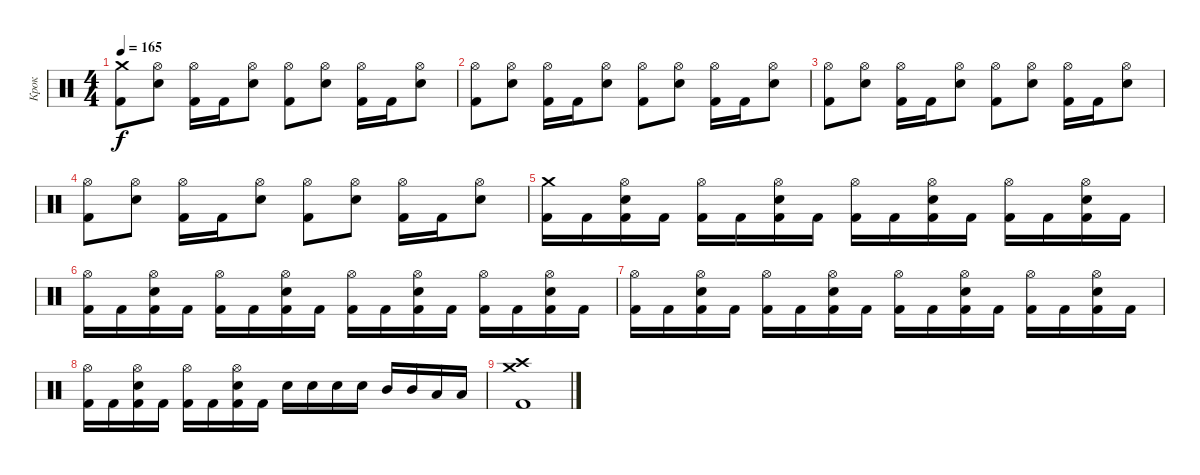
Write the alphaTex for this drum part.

\track ("Крок" "Крок") {instrument percussion}
\staff {score}
\articulation defaults
\ts (4 4)
\tempo 165
\clef neutral
\ks c
("Crash medium (hit)" "Kick (hit) 2").8{dy f} ("Hi-Hat (open)" "Electric Snare (hit)").8 ("Hi-Hat (open)" "Kick (hit) 2").16 "Kick (hit) 2".16 ("Hi-Hat (open)" "Electric Snare (hit)").8 ("Hi-Hat (open)" "Kick (hit) 2").8 ("Hi-Hat (open)" "Electric Snare (hit)").8 ("Hi-Hat (open)" "Kick (hit) 2").16 "Kick (hit) 2".16 ("Hi-Hat (open)" "Electric Snare (hit)").8 |
("Hi-Hat (open)" "Kick (hit) 2").8 ("Hi-Hat (open)" "Electric Snare (hit)").8 ("Hi-Hat (open)" "Kick (hit) 2").16 "Kick (hit) 2".16 ("Hi-Hat (open)" "Electric Snare (hit)").8 ("Hi-Hat (open)" "Kick (hit) 2").8 ("Hi-Hat (open)" "Electric Snare (hit)").8 ("Hi-Hat (open)" "Kick (hit) 2").16 "Kick (hit) 2".16 ("Hi-Hat (open)" "Electric Snare (hit)").8 |
("Hi-Hat (open)" "Kick (hit) 2").8 ("Hi-Hat (open)" "Electric Snare (hit)").8 ("Hi-Hat (open)" "Kick (hit) 2").16 "Kick (hit) 2".16 ("Hi-Hat (open)" "Electric Snare (hit)").8 ("Hi-Hat (open)" "Kick (hit) 2").8 ("Hi-Hat (open)" "Electric Snare (hit)").8 ("Hi-Hat (open)" "Kick (hit) 2").16 "Kick (hit) 2".16 ("Hi-Hat (open)" "Electric Snare (hit)").8 |
("Hi-Hat (open)" "Kick (hit) 2").8 ("Hi-Hat (open)" "Electric Snare (hit)").8 ("Hi-Hat (open)" "Kick (hit) 2").16 "Kick (hit) 2".16 ("Hi-Hat (open)" "Electric Snare (hit)").8 ("Hi-Hat (open)" "Kick (hit) 2").8 ("Hi-Hat (open)" "Electric Snare (hit)").8 ("Hi-Hat (open)" "Kick (hit) 2").16 "Kick (hit) 2".16 ("Hi-Hat (open)" "Electric Snare (hit)").8 |
("Kick (hit) 2" "Crash medium (hit)").16 "Kick (hit) 2".16 ("Kick (hit) 2" "Electric Snare (hit)" "Hi-Hat (open)").16 "Kick (hit) 2".16 ("Kick (hit) 2" "Hi-Hat (open)").16 "Kick (hit) 2".16 ("Kick (hit) 2" "Electric Snare (hit)" "Hi-Hat (open)").16 "Kick (hit) 2".16 ("Kick (hit) 2" "Hi-Hat (open)").16 "Kick (hit) 2".16 ("Kick (hit) 2" "Electric Snare (hit)" "Hi-Hat (open)").16 "Kick (hit) 2".16 ("Kick (hit) 2" "Hi-Hat (open)").16 "Kick (hit) 2".16 ("Kick (hit) 2" "Electric Snare (hit)" "Hi-Hat (open)").16 "Kick (hit) 2".16 |
("Kick (hit) 2" "Hi-Hat (open)").16 "Kick (hit) 2".16 ("Kick (hit) 2" "Electric Snare (hit)" "Hi-Hat (open)").16 "Kick (hit) 2".16 ("Kick (hit) 2" "Hi-Hat (open)").16 "Kick (hit) 2".16 ("Kick (hit) 2" "Electric Snare (hit)" "Hi-Hat (open)").16 "Kick (hit) 2".16 ("Kick (hit) 2" "Hi-Hat (open)").16 "Kick (hit) 2".16 ("Kick (hit) 2" "Electric Snare (hit)" "Hi-Hat (open)").16 "Kick (hit) 2".16 ("Kick (hit) 2" "Hi-Hat (open)").16 "Kick (hit) 2".16 ("Kick (hit) 2" "Electric Snare (hit)" "Hi-Hat (open)").16 "Kick (hit) 2".16 |
("Kick (hit) 2" "Hi-Hat (open)").16 "Kick (hit) 2".16 ("Kick (hit) 2" "Electric Snare (hit)" "Hi-Hat (open)").16 "Kick (hit) 2".16 ("Kick (hit) 2" "Hi-Hat (open)").16 "Kick (hit) 2".16 ("Kick (hit) 2" "Electric Snare (hit)" "Hi-Hat (open)").16 "Kick (hit) 2".16 ("Kick (hit) 2" "Hi-Hat (open)").16 "Kick (hit) 2".16 ("Kick (hit) 2" "Electric Snare (hit)" "Hi-Hat (open)").16 "Kick (hit) 2".16 ("Kick (hit) 2" "Hi-Hat (open)").16 "Kick (hit) 2".16 ("Kick (hit) 2" "Electric Snare (hit)" "Hi-Hat (open)").16 "Kick (hit) 2".16 |
("Kick (hit) 2" "Hi-Hat (open)").16 "Kick (hit) 2".16 ("Kick (hit) 2" "Electric Snare (hit)" "Hi-Hat (open)").16 "Kick (hit) 2".16 ("Kick (hit) 2" "Hi-Hat (open)").16 "Kick (hit) 2".16 ("Kick (hit) 2" "Electric Snare (hit)" "Hi-Hat (open)").16 "Kick (hit) 2".16 "Electric Snare (hit)".16 "Electric Snare (hit)".16 "Electric Snare (hit)".16 "Electric Snare (hit)".16 "Mid Tom (hit)".16 "Mid Tom (hit)".16 "Low Tom (hit)".16 "Low Tom (hit)".16 |
("Kick (hit) 2" "Crash high (hit)" "Crash medium (hit)").1
